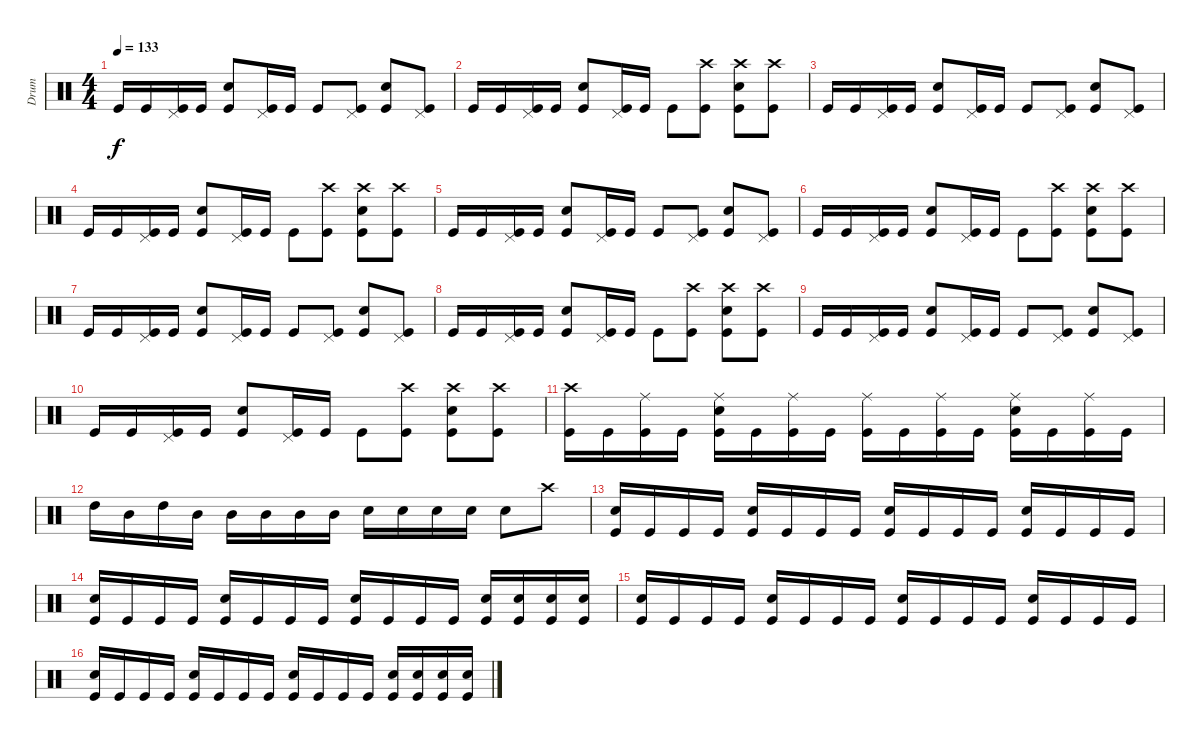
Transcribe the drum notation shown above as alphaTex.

\track ("Drum" "Drum") {instrument percussion}
\staff {score}
\articulation defaults
\ts (4 4)
\tempo 133
\clef neutral
\ks c "Kick (hit)".16{dy f} "Kick (hit)".16
("Kick (hit)" "Pedal Hi-Hat (hit)").16 "Kick (hit)".16 ("Kick (hit)" "Snare (hit) 2").8 ("Kick (hit)" "Pedal Hi-Hat (hit)").16 "Kick (hit)".16 "Kick (hit)".8 ("Kick (hit)" "Pedal Hi-Hat (hit)").8 ("Kick (hit)" "Snare (hit) 2").8 ("Kick (hit)" "Pedal Hi-Hat (hit)").8 |
"Kick (hit)".16 "Kick (hit)".16 ("Kick (hit)" "Pedal Hi-Hat (hit)").16 "Kick (hit)".16 ("Kick (hit)" "Snare (hit) 2").8 ("Kick (hit)" "Pedal Hi-Hat (hit)").16 "Kick (hit)".16 "Kick (hit)".8 ("Kick (hit)" "Crash high (hit)").8 ("Kick (hit)" "Snare (hit) 2" "Crash high (hit)").8 ("Kick (hit)" "Crash high (hit)").8 |
"Kick (hit)".16 "Kick (hit)".16 ("Kick (hit)" "Pedal Hi-Hat (hit)").16 "Kick (hit)".16 ("Kick (hit)" "Snare (hit) 2").8 ("Kick (hit)" "Pedal Hi-Hat (hit)").16 "Kick (hit)".16 "Kick (hit)".8 ("Kick (hit)" "Pedal Hi-Hat (hit)").8 ("Kick (hit)" "Snare (hit) 2").8 ("Kick (hit)" "Pedal Hi-Hat (hit)").8 |
"Kick (hit)".16 "Kick (hit)".16 ("Kick (hit)" "Pedal Hi-Hat (hit)").16 "Kick (hit)".16 ("Kick (hit)" "Snare (hit) 2").8 ("Kick (hit)" "Pedal Hi-Hat (hit)").16 "Kick (hit)".16 "Kick (hit)".8 ("Kick (hit)" "Crash high (hit)").8 ("Kick (hit)" "Snare (hit) 2" "Crash high (hit)").8 ("Kick (hit)" "Crash high (hit)").8 |
"Kick (hit)".16 "Kick (hit)".16 ("Kick (hit)" "Pedal Hi-Hat (hit)").16 "Kick (hit)".16 ("Kick (hit)" "Snare (hit) 2").8 ("Kick (hit)" "Pedal Hi-Hat (hit)").16 "Kick (hit)".16 "Kick (hit)".8 ("Kick (hit)" "Pedal Hi-Hat (hit)").8 ("Kick (hit)" "Snare (hit) 2").8 ("Kick (hit)" "Pedal Hi-Hat (hit)").8 |
"Kick (hit)".16 "Kick (hit)".16 ("Kick (hit)" "Pedal Hi-Hat (hit)").16 "Kick (hit)".16 ("Kick (hit)" "Snare (hit) 2").8 ("Kick (hit)" "Pedal Hi-Hat (hit)").16 "Kick (hit)".16 "Kick (hit)".8 ("Kick (hit)" "Crash high (hit)").8 ("Kick (hit)" "Snare (hit) 2" "Crash high (hit)").8 ("Kick (hit)" "Crash high (hit)").8 |
"Kick (hit)".16 "Kick (hit)".16 ("Kick (hit)" "Pedal Hi-Hat (hit)").16 "Kick (hit)".16 ("Kick (hit)" "Snare (hit) 2").8 ("Kick (hit)" "Pedal Hi-Hat (hit)").16 "Kick (hit)".16 "Kick (hit)".8 ("Kick (hit)" "Pedal Hi-Hat (hit)").8 ("Kick (hit)" "Snare (hit) 2").8 ("Kick (hit)" "Pedal Hi-Hat (hit)").8 |
"Kick (hit)".16 "Kick (hit)".16 ("Kick (hit)" "Pedal Hi-Hat (hit)").16 "Kick (hit)".16 ("Kick (hit)" "Snare (hit) 2").8 ("Kick (hit)" "Pedal Hi-Hat (hit)").16 "Kick (hit)".16 "Kick (hit)".8 ("Kick (hit)" "Crash high (hit)").8 ("Kick (hit)" "Snare (hit) 2" "Crash high (hit)").8 ("Kick (hit)" "Crash high (hit)").8 |
"Kick (hit)".16 "Kick (hit)".16 ("Kick (hit)" "Pedal Hi-Hat (hit)").16 "Kick (hit)".16 ("Kick (hit)" "Snare (hit) 2").8 ("Kick (hit)" "Pedal Hi-Hat (hit)").16 "Kick (hit)".16 "Kick (hit)".8 ("Kick (hit)" "Pedal Hi-Hat (hit)").8 ("Kick (hit)" "Snare (hit) 2").8 ("Kick (hit)" "Pedal Hi-Hat (hit)").8 |
"Kick (hit)".16 "Kick (hit)".16 ("Kick (hit)" "Pedal Hi-Hat (hit)").16 "Kick (hit)".16 ("Kick (hit)" "Snare (hit) 2").8 ("Kick (hit)" "Pedal Hi-Hat (hit)").16 "Kick (hit)".16 "Kick (hit)".8 ("Kick (hit)" "Crash high (hit)").8 ("Kick (hit)" "Snare (hit) 2" "Crash high (hit)").8 ("Kick (hit)" "Crash high (hit)").8 |
("Kick (hit)" "Crash high (hit)").16 "Kick (hit)".16 ("Kick (hit)" "Ride (middle)").16 "Kick (hit)".16 ("Kick (hit)" "Ride (middle)" "Snare (hit) 2").16 "Kick (hit)".16 ("Kick (hit)" "Ride (middle)").16 "Kick (hit)".16 ("Kick (hit)" "Ride (middle)").16 "Kick (hit)".16 ("Kick (hit)" "Ride (middle)").16 "Kick (hit)".16 ("Kick (hit)" "Ride (middle)" "Snare (hit) 2").16 "Kick (hit)".16 ("Kick (hit)" "Ride (middle)").16 "Kick (hit)".16 |
"High Tom (hit)".16 "Mid Tom (hit)".16 "High Tom (hit)".16 "Mid Tom (hit)".16 "Mid Tom (hit)".16 "Mid Tom (hit)".16 "Mid Tom (hit)".16 "Mid Tom (hit)".16 "Snare (hit) 2".16 "Snare (hit) 2".16 "Snare (hit) 2".16 "Snare (hit) 2".16 "Snare (hit) 2".8 "Crash high (hit)".8 |
("Kick (hit)" "Snare (hit) 2").16 "Kick (hit)".16 "Kick (hit)".16 "Kick (hit)".16 ("Kick (hit)" "Snare (hit) 2").16 "Kick (hit)".16 "Kick (hit)".16 "Kick (hit)".16 ("Kick (hit)" "Snare (hit) 2").16 "Kick (hit)".16 "Kick (hit)".16 "Kick (hit)".16 ("Kick (hit)" "Snare (hit) 2").16 "Kick (hit)".16 "Kick (hit)".16 "Kick (hit)".16 |
("Kick (hit)" "Snare (hit) 2").16 "Kick (hit)".16 "Kick (hit)".16 "Kick (hit)".16 ("Kick (hit)" "Snare (hit) 2").16 "Kick (hit)".16 "Kick (hit)".16 "Kick (hit)".16 ("Kick (hit)" "Snare (hit) 2").16 "Kick (hit)".16 "Kick (hit)".16 "Kick (hit)".16 ("Kick (hit)" "Snare (hit) 2").16 ("Kick (hit)" "Snare (hit) 2").16 ("Kick (hit)" "Snare (hit) 2").16 ("Kick (hit)" "Snare (hit) 2").16 |
("Kick (hit)" "Snare (hit) 2").16 "Kick (hit)".16 "Kick (hit)".16 "Kick (hit)".16 ("Kick (hit)" "Snare (hit) 2").16 "Kick (hit)".16 "Kick (hit)".16 "Kick (hit)".16 ("Kick (hit)" "Snare (hit) 2").16 "Kick (hit)".16 "Kick (hit)".16 "Kick (hit)".16 ("Kick (hit)" "Snare (hit) 2").16 "Kick (hit)".16 "Kick (hit)".16 "Kick (hit)".16 |
("Kick (hit)" "Snare (hit) 2").16 "Kick (hit)".16 "Kick (hit)".16 "Kick (hit)".16 ("Kick (hit)" "Snare (hit) 2").16 "Kick (hit)".16 "Kick (hit)".16 "Kick (hit)".16 ("Kick (hit)" "Snare (hit) 2").16 "Kick (hit)".16 "Kick (hit)".16 "Kick (hit)".16 ("Kick (hit)" "Snare (hit) 2").16 ("Kick (hit)" "Snare (hit) 2").16 ("Kick (hit)" "Snare (hit) 2").16 ("Kick (hit)" "Snare (hit) 2").16
